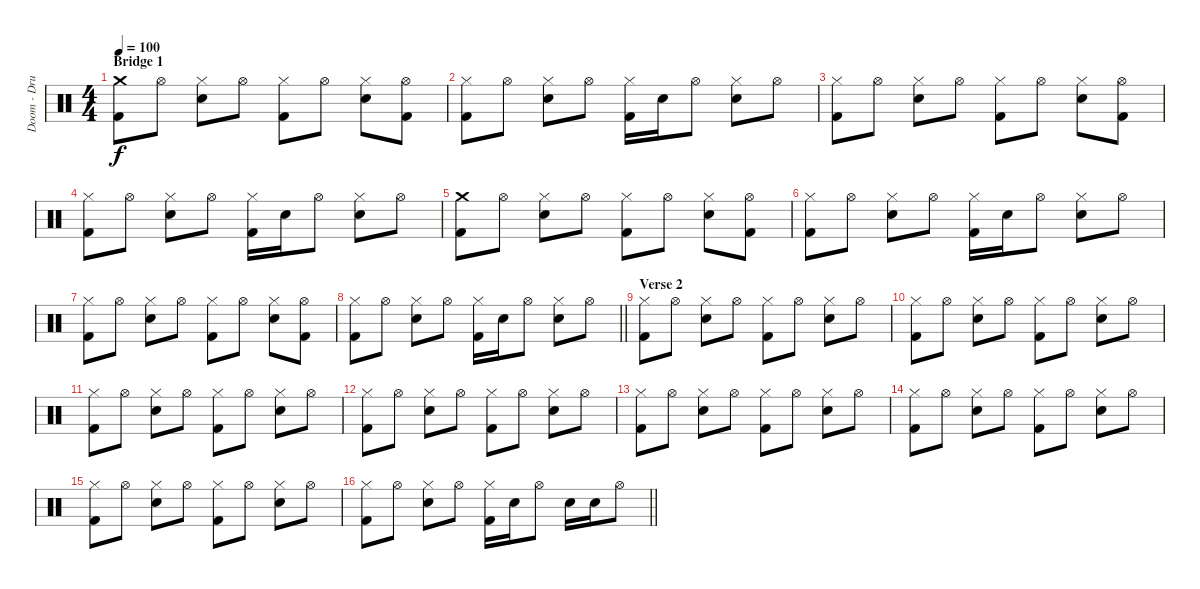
\track ("Doom - Drums" "Doom - Dru") {instrument percussion}
\staff {score}
\articulation defaults
\ts (4 4)
\section ("" "Bridge 1")
\tempo 100
\clef neutral
\ks c
("Crash medium (hit)" "Kick (hit) 2").8{dy f} "Hi-Hat (open)".8 ("Hi-Hat (closed)" "Snare (hit) 2").8 "Hi-Hat (open)".8 ("Hi-Hat (closed)" "Kick (hit) 2").8 "Hi-Hat (open)".8 ("Hi-Hat (closed)" "Snare (hit) 2").8 ("Hi-Hat (open)" "Kick (hit) 2").8 |
("Hi-Hat (closed)" "Kick (hit) 2").8 "Hi-Hat (open)".8 ("Hi-Hat (closed)" "Snare (hit) 2").8 "Hi-Hat (open)".8 ("Hi-Hat (closed)" "Kick (hit) 2").16 "Snare (hit) 2".16 "Hi-Hat (open)".8 ("Hi-Hat (closed)" "Snare (hit) 2").8 "Hi-Hat (open)".8 |
("Hi-Hat (closed)" "Kick (hit) 2").8 "Hi-Hat (open)".8 ("Hi-Hat (closed)" "Snare (hit) 2").8 "Hi-Hat (open)".8 ("Hi-Hat (closed)" "Kick (hit) 2").8 "Hi-Hat (open)".8 ("Hi-Hat (closed)" "Snare (hit) 2").8 ("Hi-Hat (open)" "Kick (hit) 2").8 |
("Hi-Hat (closed)" "Kick (hit) 2").8 "Hi-Hat (open)".8 ("Hi-Hat (closed)" "Snare (hit) 2").8 "Hi-Hat (open)".8 ("Hi-Hat (closed)" "Kick (hit) 2").16 "Snare (hit) 2".16 "Hi-Hat (open)".8 ("Hi-Hat (closed)" "Snare (hit) 2").8 "Hi-Hat (open)".8 |
("Crash medium (hit)" "Kick (hit) 2").8 "Hi-Hat (open)".8 ("Hi-Hat (closed)" "Snare (hit) 2").8 "Hi-Hat (open)".8 ("Hi-Hat (closed)" "Kick (hit) 2").8 "Hi-Hat (open)".8 ("Hi-Hat (closed)" "Snare (hit) 2").8 ("Hi-Hat (open)" "Kick (hit) 2").8 |
("Hi-Hat (closed)" "Kick (hit) 2").8 "Hi-Hat (open)".8 ("Hi-Hat (closed)" "Snare (hit) 2").8 "Hi-Hat (open)".8 ("Hi-Hat (closed)" "Kick (hit) 2").16 "Snare (hit) 2".16 "Hi-Hat (open)".8 ("Hi-Hat (closed)" "Snare (hit) 2").8 "Hi-Hat (open)".8 |
("Hi-Hat (closed)" "Kick (hit) 2").8 "Hi-Hat (open)".8 ("Hi-Hat (closed)" "Snare (hit) 2").8 "Hi-Hat (open)".8 ("Hi-Hat (closed)" "Kick (hit) 2").8 "Hi-Hat (open)".8 ("Hi-Hat (closed)" "Snare (hit) 2").8 ("Hi-Hat (open)" "Kick (hit) 2").8 |
\barLineRight lightlight
("Hi-Hat (closed)" "Kick (hit) 2").8 "Hi-Hat (open)".8 ("Hi-Hat (closed)" "Snare (hit) 2").8 "Hi-Hat (open)".8 ("Hi-Hat (closed)" "Kick (hit) 2").16 "Snare (hit) 2".16 "Hi-Hat (open)".8 ("Hi-Hat (closed)" "Snare (hit) 2").8 "Hi-Hat (open)".8 |
\section ("" "Verse 2")
("Hi-Hat (closed)" "Kick (hit) 2").8 "Hi-Hat (open)".8 ("Hi-Hat (closed)" "Snare (hit) 2").8 "Hi-Hat (open)".8 ("Hi-Hat (closed)" "Kick (hit) 2").8 "Hi-Hat (open)".8 ("Hi-Hat (closed)" "Snare (hit) 2").8 "Hi-Hat (open)".8 |
("Hi-Hat (closed)" "Kick (hit) 2").8 "Hi-Hat (open)".8 ("Hi-Hat (closed)" "Snare (hit) 2").8 "Hi-Hat (open)".8 ("Hi-Hat (closed)" "Kick (hit) 2").8 "Hi-Hat (open)".8 ("Hi-Hat (closed)" "Snare (hit) 2").8 "Hi-Hat (open)".8 |
("Hi-Hat (closed)" "Kick (hit) 2").8 "Hi-Hat (open)".8 ("Hi-Hat (closed)" "Snare (hit) 2").8 "Hi-Hat (open)".8 ("Hi-Hat (closed)" "Kick (hit) 2").8 "Hi-Hat (open)".8 ("Hi-Hat (closed)" "Snare (hit) 2").8 "Hi-Hat (open)".8 |
("Hi-Hat (closed)" "Kick (hit) 2").8 "Hi-Hat (open)".8 ("Hi-Hat (closed)" "Snare (hit) 2").8 "Hi-Hat (open)".8 ("Hi-Hat (closed)" "Kick (hit) 2").8 "Hi-Hat (open)".8 ("Hi-Hat (closed)" "Snare (hit) 2").8 "Hi-Hat (open)".8 |
("Hi-Hat (closed)" "Kick (hit) 2").8 "Hi-Hat (open)".8 ("Hi-Hat (closed)" "Snare (hit) 2").8 "Hi-Hat (open)".8 ("Hi-Hat (closed)" "Kick (hit) 2").8 "Hi-Hat (open)".8 ("Hi-Hat (closed)" "Snare (hit) 2").8 "Hi-Hat (open)".8 |
("Hi-Hat (closed)" "Kick (hit) 2").8 "Hi-Hat (open)".8 ("Hi-Hat (closed)" "Snare (hit) 2").8 "Hi-Hat (open)".8 ("Hi-Hat (closed)" "Kick (hit) 2").8 "Hi-Hat (open)".8 ("Hi-Hat (closed)" "Snare (hit) 2").8 "Hi-Hat (open)".8 |
("Hi-Hat (closed)" "Kick (hit) 2").8 "Hi-Hat (open)".8 ("Hi-Hat (closed)" "Snare (hit) 2").8 "Hi-Hat (open)".8 ("Hi-Hat (closed)" "Kick (hit) 2").8 "Hi-Hat (open)".8 ("Hi-Hat (closed)" "Snare (hit) 2").8 "Hi-Hat (open)".8 |
\barLineRight lightlight
("Hi-Hat (closed)" "Kick (hit) 2").8 "Hi-Hat (open)".8 ("Hi-Hat (closed)" "Snare (hit) 2").8 "Hi-Hat (open)".8 ("Hi-Hat (closed)" "Kick (hit) 2").16 "Snare (hit) 2".16 "Hi-Hat (open)".8 "Snare (hit) 2".16 "Snare (hit) 2".16 "Hi-Hat (open)".8
